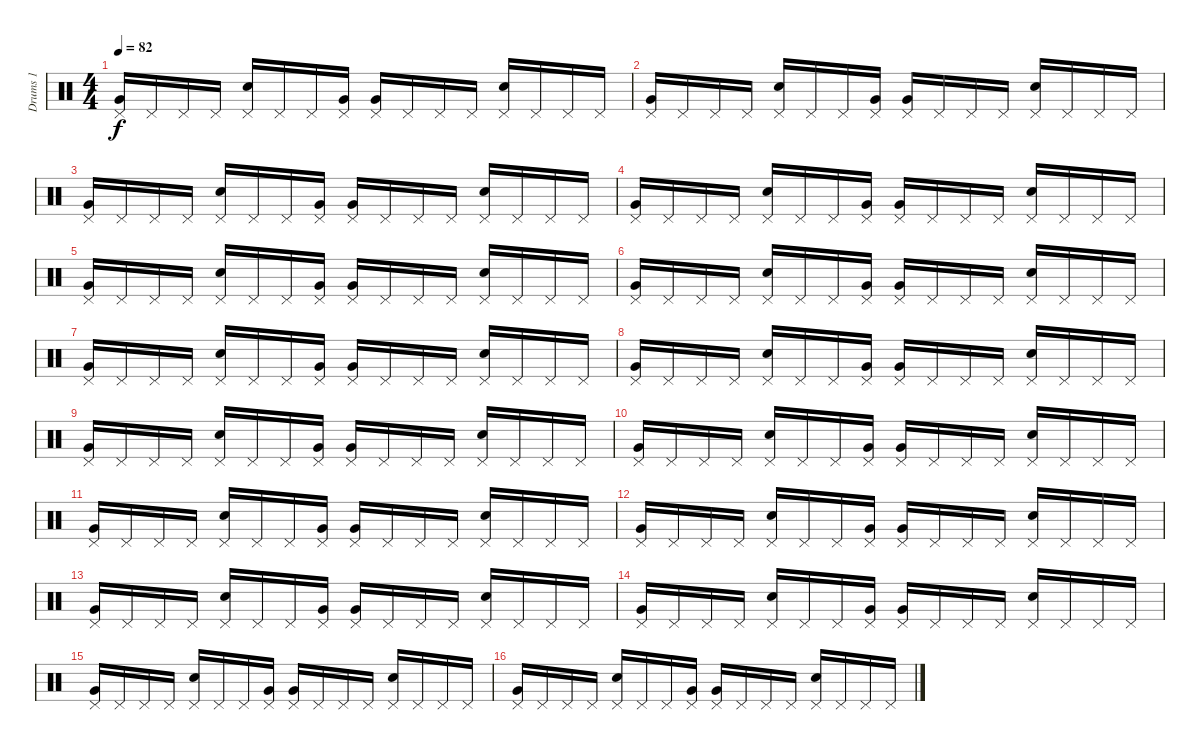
\track ("Drums 1" "Drums 1") {instrument percussion}
\staff {score}
\articulation defaults
\ts (4 4)
\tempo 82
\clef neutral
\ks c
("Pedal Hi-Hat (hit)" "Very Low Tom (hit)").16{dy f} "Pedal Hi-Hat (hit)".16 "Pedal Hi-Hat (hit)".16 "Pedal Hi-Hat (hit)".16 ("Pedal Hi-Hat (hit)" "Electric Snare (hit)").16 "Pedal Hi-Hat (hit)".16 "Pedal Hi-Hat (hit)".16 ("Pedal Hi-Hat (hit)" "Very Low Tom (hit)").16 ("Pedal Hi-Hat (hit)" "Very Low Tom (hit)").16 "Pedal Hi-Hat (hit)".16 "Pedal Hi-Hat (hit)".16 "Pedal Hi-Hat (hit)".16 ("Pedal Hi-Hat (hit)" "Electric Snare (hit)").16 "Pedal Hi-Hat (hit)".16 "Pedal Hi-Hat (hit)".16 "Pedal Hi-Hat (hit)".16 |
("Pedal Hi-Hat (hit)" "Very Low Tom (hit)").16 "Pedal Hi-Hat (hit)".16 "Pedal Hi-Hat (hit)".16 "Pedal Hi-Hat (hit)".16 ("Pedal Hi-Hat (hit)" "Electric Snare (hit)").16 "Pedal Hi-Hat (hit)".16 "Pedal Hi-Hat (hit)".16 ("Pedal Hi-Hat (hit)" "Very Low Tom (hit)").16 ("Pedal Hi-Hat (hit)" "Very Low Tom (hit)").16 "Pedal Hi-Hat (hit)".16 "Pedal Hi-Hat (hit)".16 "Pedal Hi-Hat (hit)".16 ("Pedal Hi-Hat (hit)" "Electric Snare (hit)").16 "Pedal Hi-Hat (hit)".16 "Pedal Hi-Hat (hit)".16 "Pedal Hi-Hat (hit)".16 |
("Pedal Hi-Hat (hit)" "Very Low Tom (hit)").16 "Pedal Hi-Hat (hit)".16 "Pedal Hi-Hat (hit)".16 "Pedal Hi-Hat (hit)".16 ("Pedal Hi-Hat (hit)" "Electric Snare (hit)").16 "Pedal Hi-Hat (hit)".16 "Pedal Hi-Hat (hit)".16 ("Pedal Hi-Hat (hit)" "Very Low Tom (hit)").16 ("Pedal Hi-Hat (hit)" "Very Low Tom (hit)").16 "Pedal Hi-Hat (hit)".16 "Pedal Hi-Hat (hit)".16 "Pedal Hi-Hat (hit)".16 ("Pedal Hi-Hat (hit)" "Electric Snare (hit)").16 "Pedal Hi-Hat (hit)".16 "Pedal Hi-Hat (hit)".16 "Pedal Hi-Hat (hit)".16 |
("Pedal Hi-Hat (hit)" "Very Low Tom (hit)").16 "Pedal Hi-Hat (hit)".16 "Pedal Hi-Hat (hit)".16 "Pedal Hi-Hat (hit)".16 ("Pedal Hi-Hat (hit)" "Electric Snare (hit)").16 "Pedal Hi-Hat (hit)".16 "Pedal Hi-Hat (hit)".16 ("Pedal Hi-Hat (hit)" "Very Low Tom (hit)").16 ("Pedal Hi-Hat (hit)" "Very Low Tom (hit)").16 "Pedal Hi-Hat (hit)".16 "Pedal Hi-Hat (hit)".16 "Pedal Hi-Hat (hit)".16 ("Pedal Hi-Hat (hit)" "Electric Snare (hit)").16 "Pedal Hi-Hat (hit)".16 "Pedal Hi-Hat (hit)".16 "Pedal Hi-Hat (hit)".16 |
("Pedal Hi-Hat (hit)" "Very Low Tom (hit)").16 "Pedal Hi-Hat (hit)".16 "Pedal Hi-Hat (hit)".16 "Pedal Hi-Hat (hit)".16 ("Pedal Hi-Hat (hit)" "Electric Snare (hit)").16 "Pedal Hi-Hat (hit)".16 "Pedal Hi-Hat (hit)".16 ("Pedal Hi-Hat (hit)" "Very Low Tom (hit)").16 ("Pedal Hi-Hat (hit)" "Very Low Tom (hit)").16 "Pedal Hi-Hat (hit)".16 "Pedal Hi-Hat (hit)".16 "Pedal Hi-Hat (hit)".16 ("Pedal Hi-Hat (hit)" "Electric Snare (hit)").16 "Pedal Hi-Hat (hit)".16 "Pedal Hi-Hat (hit)".16 "Pedal Hi-Hat (hit)".16 |
("Pedal Hi-Hat (hit)" "Very Low Tom (hit)").16 "Pedal Hi-Hat (hit)".16 "Pedal Hi-Hat (hit)".16 "Pedal Hi-Hat (hit)".16 ("Pedal Hi-Hat (hit)" "Electric Snare (hit)").16 "Pedal Hi-Hat (hit)".16 "Pedal Hi-Hat (hit)".16 ("Pedal Hi-Hat (hit)" "Very Low Tom (hit)").16 ("Pedal Hi-Hat (hit)" "Very Low Tom (hit)").16 "Pedal Hi-Hat (hit)".16 "Pedal Hi-Hat (hit)".16 "Pedal Hi-Hat (hit)".16 ("Pedal Hi-Hat (hit)" "Electric Snare (hit)").16 "Pedal Hi-Hat (hit)".16 "Pedal Hi-Hat (hit)".16 "Pedal Hi-Hat (hit)".16 |
("Pedal Hi-Hat (hit)" "Very Low Tom (hit)").16 "Pedal Hi-Hat (hit)".16 "Pedal Hi-Hat (hit)".16 "Pedal Hi-Hat (hit)".16 ("Pedal Hi-Hat (hit)" "Electric Snare (hit)").16 "Pedal Hi-Hat (hit)".16 "Pedal Hi-Hat (hit)".16 ("Pedal Hi-Hat (hit)" "Very Low Tom (hit)").16 ("Pedal Hi-Hat (hit)" "Very Low Tom (hit)").16 "Pedal Hi-Hat (hit)".16 "Pedal Hi-Hat (hit)".16 "Pedal Hi-Hat (hit)".16 ("Pedal Hi-Hat (hit)" "Electric Snare (hit)").16 "Pedal Hi-Hat (hit)".16 "Pedal Hi-Hat (hit)".16 "Pedal Hi-Hat (hit)".16 |
("Pedal Hi-Hat (hit)" "Very Low Tom (hit)").16 "Pedal Hi-Hat (hit)".16 "Pedal Hi-Hat (hit)".16 "Pedal Hi-Hat (hit)".16 ("Pedal Hi-Hat (hit)" "Electric Snare (hit)").16 "Pedal Hi-Hat (hit)".16 "Pedal Hi-Hat (hit)".16 ("Pedal Hi-Hat (hit)" "Very Low Tom (hit)").16 ("Pedal Hi-Hat (hit)" "Very Low Tom (hit)").16 "Pedal Hi-Hat (hit)".16 "Pedal Hi-Hat (hit)".16 "Pedal Hi-Hat (hit)".16 ("Pedal Hi-Hat (hit)" "Electric Snare (hit)").16 "Pedal Hi-Hat (hit)".16 "Pedal Hi-Hat (hit)".16 "Pedal Hi-Hat (hit)".16 |
("Pedal Hi-Hat (hit)" "Very Low Tom (hit)").16 "Pedal Hi-Hat (hit)".16 "Pedal Hi-Hat (hit)".16 "Pedal Hi-Hat (hit)".16 ("Pedal Hi-Hat (hit)" "Electric Snare (hit)").16 "Pedal Hi-Hat (hit)".16 "Pedal Hi-Hat (hit)".16 ("Pedal Hi-Hat (hit)" "Very Low Tom (hit)").16 ("Pedal Hi-Hat (hit)" "Very Low Tom (hit)").16 "Pedal Hi-Hat (hit)".16 "Pedal Hi-Hat (hit)".16 "Pedal Hi-Hat (hit)".16 ("Pedal Hi-Hat (hit)" "Electric Snare (hit)").16 "Pedal Hi-Hat (hit)".16 "Pedal Hi-Hat (hit)".16 "Pedal Hi-Hat (hit)".16 |
("Pedal Hi-Hat (hit)" "Very Low Tom (hit)").16 "Pedal Hi-Hat (hit)".16 "Pedal Hi-Hat (hit)".16 "Pedal Hi-Hat (hit)".16 ("Pedal Hi-Hat (hit)" "Electric Snare (hit)").16 "Pedal Hi-Hat (hit)".16 "Pedal Hi-Hat (hit)".16 ("Pedal Hi-Hat (hit)" "Very Low Tom (hit)").16 ("Pedal Hi-Hat (hit)" "Very Low Tom (hit)").16 "Pedal Hi-Hat (hit)".16 "Pedal Hi-Hat (hit)".16 "Pedal Hi-Hat (hit)".16 ("Pedal Hi-Hat (hit)" "Electric Snare (hit)").16 "Pedal Hi-Hat (hit)".16 "Pedal Hi-Hat (hit)".16 "Pedal Hi-Hat (hit)".16 |
("Pedal Hi-Hat (hit)" "Very Low Tom (hit)").16 "Pedal Hi-Hat (hit)".16 "Pedal Hi-Hat (hit)".16 "Pedal Hi-Hat (hit)".16 ("Pedal Hi-Hat (hit)" "Electric Snare (hit)").16 "Pedal Hi-Hat (hit)".16 "Pedal Hi-Hat (hit)".16 ("Pedal Hi-Hat (hit)" "Very Low Tom (hit)").16 ("Pedal Hi-Hat (hit)" "Very Low Tom (hit)").16 "Pedal Hi-Hat (hit)".16 "Pedal Hi-Hat (hit)".16 "Pedal Hi-Hat (hit)".16 ("Pedal Hi-Hat (hit)" "Electric Snare (hit)").16 "Pedal Hi-Hat (hit)".16 "Pedal Hi-Hat (hit)".16 "Pedal Hi-Hat (hit)".16 |
("Pedal Hi-Hat (hit)" "Very Low Tom (hit)").16 "Pedal Hi-Hat (hit)".16 "Pedal Hi-Hat (hit)".16 "Pedal Hi-Hat (hit)".16 ("Pedal Hi-Hat (hit)" "Electric Snare (hit)").16 "Pedal Hi-Hat (hit)".16 "Pedal Hi-Hat (hit)".16 ("Pedal Hi-Hat (hit)" "Very Low Tom (hit)").16 ("Pedal Hi-Hat (hit)" "Very Low Tom (hit)").16 "Pedal Hi-Hat (hit)".16 "Pedal Hi-Hat (hit)".16 "Pedal Hi-Hat (hit)".16 ("Pedal Hi-Hat (hit)" "Electric Snare (hit)").16 "Pedal Hi-Hat (hit)".16 "Pedal Hi-Hat (hit)".16 "Pedal Hi-Hat (hit)".16 |
("Pedal Hi-Hat (hit)" "Very Low Tom (hit)").16 "Pedal Hi-Hat (hit)".16 "Pedal Hi-Hat (hit)".16 "Pedal Hi-Hat (hit)".16 ("Pedal Hi-Hat (hit)" "Electric Snare (hit)").16 "Pedal Hi-Hat (hit)".16 "Pedal Hi-Hat (hit)".16 ("Pedal Hi-Hat (hit)" "Very Low Tom (hit)").16 ("Pedal Hi-Hat (hit)" "Very Low Tom (hit)").16 "Pedal Hi-Hat (hit)".16 "Pedal Hi-Hat (hit)".16 "Pedal Hi-Hat (hit)".16 ("Pedal Hi-Hat (hit)" "Electric Snare (hit)").16 "Pedal Hi-Hat (hit)".16 "Pedal Hi-Hat (hit)".16 "Pedal Hi-Hat (hit)".16 |
("Pedal Hi-Hat (hit)" "Very Low Tom (hit)").16 "Pedal Hi-Hat (hit)".16 "Pedal Hi-Hat (hit)".16 "Pedal Hi-Hat (hit)".16 ("Pedal Hi-Hat (hit)" "Electric Snare (hit)").16 "Pedal Hi-Hat (hit)".16 "Pedal Hi-Hat (hit)".16 ("Pedal Hi-Hat (hit)" "Very Low Tom (hit)").16 ("Pedal Hi-Hat (hit)" "Very Low Tom (hit)").16 "Pedal Hi-Hat (hit)".16 "Pedal Hi-Hat (hit)".16 "Pedal Hi-Hat (hit)".16 ("Pedal Hi-Hat (hit)" "Electric Snare (hit)").16 "Pedal Hi-Hat (hit)".16 "Pedal Hi-Hat (hit)".16 "Pedal Hi-Hat (hit)".16 |
("Pedal Hi-Hat (hit)" "Very Low Tom (hit)").16 "Pedal Hi-Hat (hit)".16 "Pedal Hi-Hat (hit)".16 "Pedal Hi-Hat (hit)".16 ("Pedal Hi-Hat (hit)" "Electric Snare (hit)").16 "Pedal Hi-Hat (hit)".16 "Pedal Hi-Hat (hit)".16 ("Pedal Hi-Hat (hit)" "Very Low Tom (hit)").16 ("Pedal Hi-Hat (hit)" "Very Low Tom (hit)").16 "Pedal Hi-Hat (hit)".16 "Pedal Hi-Hat (hit)".16 "Pedal Hi-Hat (hit)".16 ("Pedal Hi-Hat (hit)" "Electric Snare (hit)").16 "Pedal Hi-Hat (hit)".16 "Pedal Hi-Hat (hit)".16 "Pedal Hi-Hat (hit)".16 |
("Pedal Hi-Hat (hit)" "Very Low Tom (hit)").16 "Pedal Hi-Hat (hit)".16 "Pedal Hi-Hat (hit)".16 "Pedal Hi-Hat (hit)".16 ("Pedal Hi-Hat (hit)" "Electric Snare (hit)").16 "Pedal Hi-Hat (hit)".16 "Pedal Hi-Hat (hit)".16 ("Pedal Hi-Hat (hit)" "Very Low Tom (hit)").16 ("Pedal Hi-Hat (hit)" "Very Low Tom (hit)").16 "Pedal Hi-Hat (hit)".16 "Pedal Hi-Hat (hit)".16 "Pedal Hi-Hat (hit)".16 ("Pedal Hi-Hat (hit)" "Electric Snare (hit)").16 "Pedal Hi-Hat (hit)".16 "Pedal Hi-Hat (hit)".16 "Pedal Hi-Hat (hit)".16
